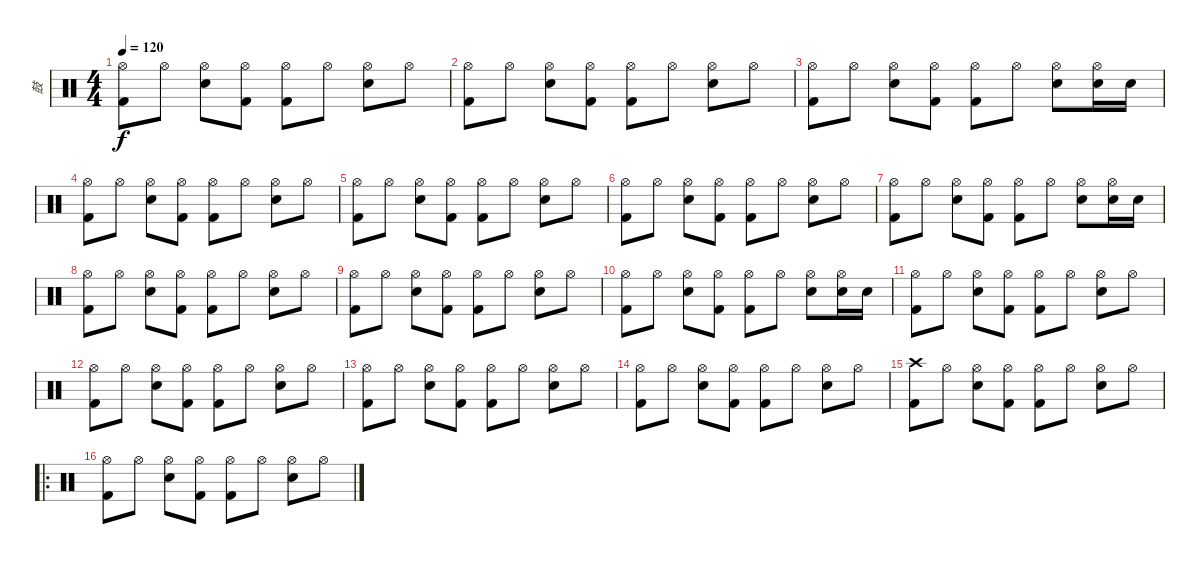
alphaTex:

\track ("鼓" "鼓") {instrument percussion}
\staff {score}
\articulation defaults
\ts (4 4)
\tempo 120
\clef neutral
\ks c
("Hi-Hat (open)" "Kick (hit) 2").8{dy f} "Hi-Hat (open)".8 ("Hi-Hat (open)" "Electric Snare (hit)").8 ("Hi-Hat (open)" "Kick (hit) 2").8 ("Hi-Hat (open)" "Kick (hit) 2").8 "Hi-Hat (open)".8 ("Hi-Hat (open)" "Electric Snare (hit)").8 "Hi-Hat (open)".8 |
("Hi-Hat (open)" "Kick (hit) 2").8 "Hi-Hat (open)".8 ("Hi-Hat (open)" "Electric Snare (hit)").8 ("Hi-Hat (open)" "Kick (hit) 2").8 ("Hi-Hat (open)" "Kick (hit) 2").8 "Hi-Hat (open)".8 ("Hi-Hat (open)" "Electric Snare (hit)").8 "Hi-Hat (open)".8 |
("Hi-Hat (open)" "Kick (hit) 2").8 "Hi-Hat (open)".8 ("Hi-Hat (open)" "Electric Snare (hit)").8 ("Hi-Hat (open)" "Kick (hit) 2").8 ("Hi-Hat (open)" "Kick (hit) 2").8 "Hi-Hat (open)".8 ("Hi-Hat (open)" "Electric Snare (hit)").8 ("Hi-Hat (open)" "Electric Snare (hit)").16 "Electric Snare (hit)".16 |
("Hi-Hat (open)" "Kick (hit) 2").8 "Hi-Hat (open)".8 ("Hi-Hat (open)" "Electric Snare (hit)").8 ("Hi-Hat (open)" "Kick (hit) 2").8 ("Hi-Hat (open)" "Kick (hit) 2").8 "Hi-Hat (open)".8 ("Hi-Hat (open)" "Electric Snare (hit)").8 "Hi-Hat (open)".8 |
("Hi-Hat (open)" "Kick (hit) 2").8 "Hi-Hat (open)".8 ("Hi-Hat (open)" "Electric Snare (hit)").8 ("Hi-Hat (open)" "Kick (hit) 2").8 ("Hi-Hat (open)" "Kick (hit) 2").8 "Hi-Hat (open)".8 ("Hi-Hat (open)" "Electric Snare (hit)").8 "Hi-Hat (open)".8 |
("Hi-Hat (open)" "Kick (hit) 2").8 "Hi-Hat (open)".8 ("Hi-Hat (open)" "Electric Snare (hit)").8 ("Hi-Hat (open)" "Kick (hit) 2").8 ("Hi-Hat (open)" "Kick (hit) 2").8 "Hi-Hat (open)".8 ("Hi-Hat (open)" "Electric Snare (hit)").8 "Hi-Hat (open)".8 |
("Hi-Hat (open)" "Kick (hit) 2").8 "Hi-Hat (open)".8 ("Hi-Hat (open)" "Electric Snare (hit)").8 ("Hi-Hat (open)" "Kick (hit) 2").8 ("Hi-Hat (open)" "Kick (hit) 2").8 "Hi-Hat (open)".8 ("Hi-Hat (open)" "Electric Snare (hit)").8 ("Hi-Hat (open)" "Electric Snare (hit)").16 "Electric Snare (hit)".16 |
("Hi-Hat (open)" "Kick (hit) 2").8 "Hi-Hat (open)".8 ("Hi-Hat (open)" "Electric Snare (hit)").8 ("Hi-Hat (open)" "Kick (hit) 2").8 ("Hi-Hat (open)" "Kick (hit) 2").8 "Hi-Hat (open)".8 ("Hi-Hat (open)" "Electric Snare (hit)").8 "Hi-Hat (open)".8 |
("Hi-Hat (open)" "Kick (hit) 2").8 "Hi-Hat (open)".8 ("Hi-Hat (open)" "Electric Snare (hit)").8 ("Hi-Hat (open)" "Kick (hit) 2").8 ("Hi-Hat (open)" "Kick (hit) 2").8 "Hi-Hat (open)".8 ("Hi-Hat (open)" "Electric Snare (hit)").8 "Hi-Hat (open)".8 |
("Hi-Hat (open)" "Kick (hit) 2").8 "Hi-Hat (open)".8 ("Hi-Hat (open)" "Electric Snare (hit)").8 ("Hi-Hat (open)" "Kick (hit) 2").8 ("Hi-Hat (open)" "Kick (hit) 2").8 "Hi-Hat (open)".8 ("Hi-Hat (open)" "Electric Snare (hit)").8 ("Hi-Hat (open)" "Electric Snare (hit)").16 "Electric Snare (hit)".16 |
("Hi-Hat (open)" "Kick (hit) 2").8 "Hi-Hat (open)".8 ("Hi-Hat (open)" "Electric Snare (hit)").8 ("Hi-Hat (open)" "Kick (hit) 2").8 ("Hi-Hat (open)" "Kick (hit) 2").8 "Hi-Hat (open)".8 ("Hi-Hat (open)" "Electric Snare (hit)").8 "Hi-Hat (open)".8 |
("Hi-Hat (open)" "Kick (hit) 2").8 "Hi-Hat (open)".8 ("Hi-Hat (open)" "Electric Snare (hit)").8 ("Hi-Hat (open)" "Kick (hit) 2").8 ("Hi-Hat (open)" "Kick (hit) 2").8 "Hi-Hat (open)".8 ("Hi-Hat (open)" "Electric Snare (hit)").8 "Hi-Hat (open)".8 |
("Hi-Hat (open)" "Kick (hit) 2").8 "Hi-Hat (open)".8 ("Hi-Hat (open)" "Electric Snare (hit)").8 ("Hi-Hat (open)" "Kick (hit) 2").8 ("Hi-Hat (open)" "Kick (hit) 2").8 "Hi-Hat (open)".8 ("Hi-Hat (open)" "Electric Snare (hit)").8 "Hi-Hat (open)".8 |
("Hi-Hat (open)" "Kick (hit) 2").8 "Hi-Hat (open)".8 ("Hi-Hat (open)" "Electric Snare (hit)").8 ("Hi-Hat (open)" "Kick (hit) 2").8 ("Hi-Hat (open)" "Kick (hit) 2").8 "Hi-Hat (open)".8 ("Hi-Hat (open)" "Electric Snare (hit)").8 "Hi-Hat (open)".8 |
("Crash high (hit)" "Kick (hit) 2").8 "Hi-Hat (open)".8 ("Hi-Hat (open)" "Electric Snare (hit)").8 ("Hi-Hat (open)" "Kick (hit) 2").8 ("Hi-Hat (open)" "Kick (hit) 2").8 "Hi-Hat (open)".8 ("Hi-Hat (open)" "Electric Snare (hit)").8 "Hi-Hat (open)".8 |
\ro
("Hi-Hat (open)" "Kick (hit) 2").8 "Hi-Hat (open)".8 ("Hi-Hat (open)" "Electric Snare (hit)").8 ("Hi-Hat (open)" "Kick (hit) 2").8 ("Hi-Hat (open)" "Kick (hit) 2").8 "Hi-Hat (open)".8 ("Hi-Hat (open)" "Electric Snare (hit)").8 "Hi-Hat (open)".8
